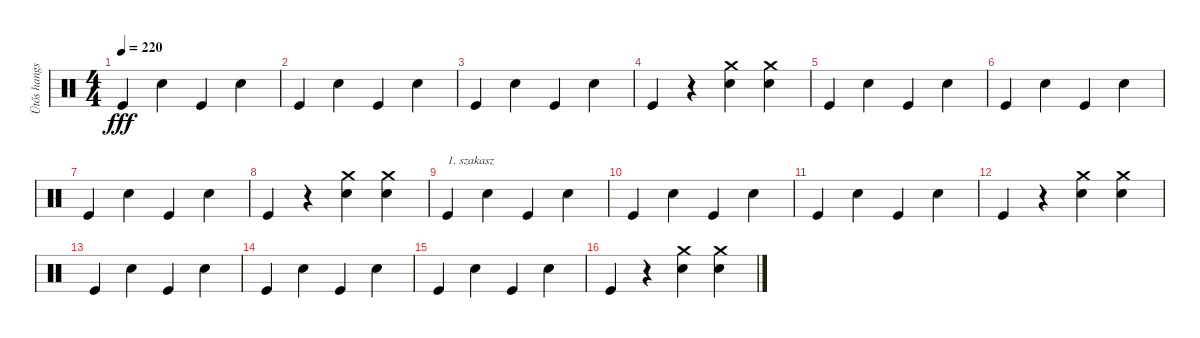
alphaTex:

\track ("Ütős hangszer" "Ütős hangs") {instrument percussion}
\staff {score}
\articulation defaults
\ts (4 4)
\tempo 220
\clef neutral
\ks c "Kick (hit)".4{dy fff} "Snare (hit) 2".4 "Kick (hit)".4 "Snare (hit) 2".4
|
"Kick (hit)".4 "Snare (hit) 2".4 "Kick (hit)".4 "Snare (hit) 2".4 |
"Kick (hit)".4 "Snare (hit) 2".4 "Kick (hit)".4 "Snare (hit) 2".4 |
"Kick (hit)".4 r.4 ("Crash medium (hit)" "Snare (hit) 2").4 ("Crash medium (hit)" "Snare (hit) 2").4 |
"Kick (hit)".4 "Snare (hit) 2".4 "Kick (hit)".4 "Snare (hit) 2".4 |
"Kick (hit)".4 "Snare (hit) 2".4 "Kick (hit)".4 "Snare (hit) 2".4 |
"Kick (hit)".4 "Snare (hit) 2".4 "Kick (hit)".4 "Snare (hit) 2".4 |
"Kick (hit)".4 r.4 ("Crash medium (hit)" "Snare (hit) 2").4 ("Crash medium (hit)" "Snare (hit) 2").4 |
"Kick (hit)".4{txt "1. szakasz"} "Snare (hit) 2".4 "Kick (hit)".4 "Snare (hit) 2".4 |
"Kick (hit)".4 "Snare (hit) 2".4 "Kick (hit)".4 "Snare (hit) 2".4 |
"Kick (hit)".4 "Snare (hit) 2".4 "Kick (hit)".4 "Snare (hit) 2".4 |
"Kick (hit)".4 r.4 ("Crash medium (hit)" "Snare (hit) 2").4 ("Crash medium (hit)" "Snare (hit) 2").4 |
"Kick (hit)".4 "Snare (hit) 2".4 "Kick (hit)".4 "Snare (hit) 2".4 |
"Kick (hit)".4 "Snare (hit) 2".4 "Kick (hit)".4 "Snare (hit) 2".4 |
"Kick (hit)".4 "Snare (hit) 2".4 "Kick (hit)".4 "Snare (hit) 2".4 |
"Kick (hit)".4 r.4 ("Crash medium (hit)" "Snare (hit) 2").4 ("Crash medium (hit)" "Snare (hit) 2").4
